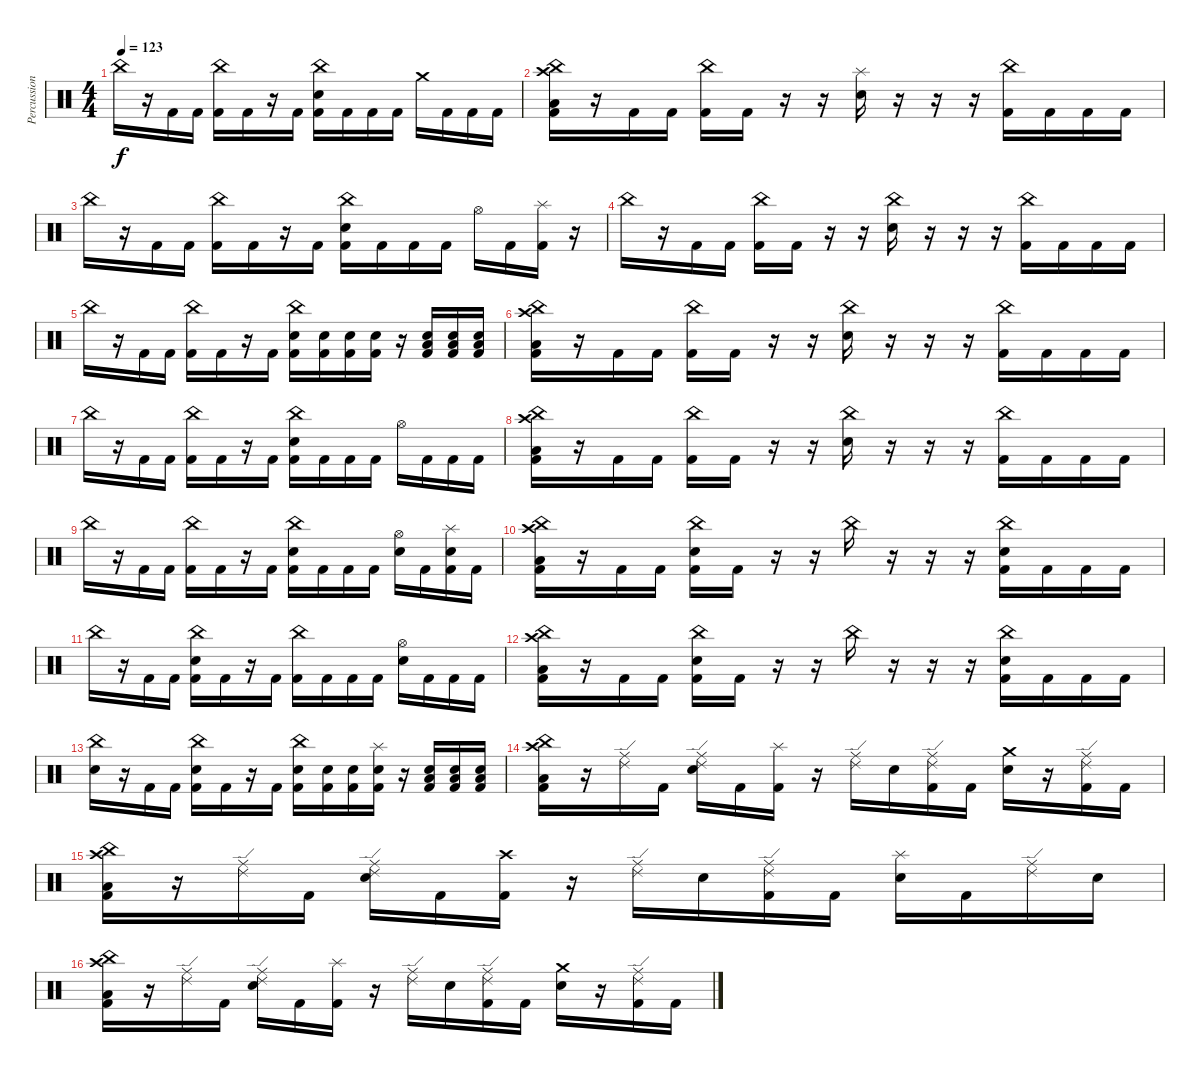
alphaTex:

\track ("Percussion" "Percussion") {instrument percussion}
\staff {score}
\articulation defaults
\ts (4 4)
\tempo 123
\clef neutral
\ks c "China (hit)".16{dy f}
r.16 "Kick (hit) 2".16 "Kick (hit) 2".16 ("China (hit)" "Kick (hit) 2").16 "Kick (hit) 2".16 r.16 "Kick (hit) 2".16 ("China (hit)" "Electric Snare (hit)" "Kick (hit) 2").16 "Kick (hit) 2".16 "Kick (hit) 2".16 "Kick (hit) 2".16 "Crash medium (hit)".16 "Kick (hit) 2".16 "Kick (hit) 2".16 "Kick (hit) 2".16 |
("Crash high (hit)" "China (hit)" "Low Floor Tom (hit)" "Kick (hit) 2").16 r.16 "Kick (hit) 2".16 "Kick (hit) 2".16 ("China (hit)" "Kick (hit) 2").16 "Kick (hit) 2".16 r.16 r.16 ("Splash (hit)" "Electric Snare (hit)").16 r.16 r.16 r.16 ("China (hit)" "Kick (hit) 2").16 "Kick (hit) 2".16 "Kick (hit) 2".16 "Kick (hit) 2".16 |
"China (hit)".16 r.16 "Kick (hit) 2".16 "Kick (hit) 2".16 ("China (hit)" "Kick (hit) 2").16 "Kick (hit) 2".16 r.16 "Kick (hit) 2".16 ("China (hit)" "Electric Snare (hit)" "Kick (hit) 2").16 "Kick (hit) 2".16 "Kick (hit) 2".16 "Kick (hit) 2".16 "Hi-Hat (open)".16 "Kick (hit) 2".16 ("Splash (hit)" "Kick (hit) 2").16 r.16 |
"China (hit)".16 r.16 "Kick (hit) 2".16 "Kick (hit) 2".16 ("China (hit)" "Kick (hit) 2").16 "Kick (hit) 2".16 r.16 r.16 ("China (hit)" "Electric Snare (hit)").16 r.16 r.16 r.16 ("China (hit)" "Kick (hit) 2").16 "Kick (hit) 2".16 "Kick (hit) 2".16 "Kick (hit) 2".16 |
"China (hit)".16 r.16 "Kick (hit) 2".16 "Kick (hit) 2".16 ("China (hit)" "Kick (hit) 2").16 "Kick (hit) 2".16 r.16 "Kick (hit) 2".16 ("China (hit)" "Electric Snare (hit)" "Kick (hit) 2").16 ("Electric Snare (hit)" "Kick (hit) 2").16 ("Electric Snare (hit)" "Kick (hit) 2").16 ("Electric Snare (hit)" "Kick (hit) 2").16 r.16 ("Electric Snare (hit)" "Low Floor Tom (hit)" "Kick (hit) 2").16 ("Electric Snare (hit)" "Low Floor Tom (hit)" "Kick (hit) 2").16 ("Electric Snare (hit)" "Low Floor Tom (hit)" "Kick (hit) 2").16 |
("Crash high (hit)" "China (hit)" "Low Floor Tom (hit)" "Kick (hit) 2").16 r.16 "Kick (hit) 2".16 "Kick (hit) 2".16 ("China (hit)" "Kick (hit) 2").16 "Kick (hit) 2".16 r.16 r.16 ("China (hit)" "Electric Snare (hit)").16 r.16 r.16 r.16 ("China (hit)" "Kick (hit) 2").16 "Kick (hit) 2".16 "Kick (hit) 2".16 "Kick (hit) 2".16 |
"China (hit)".16 r.16 "Kick (hit) 2".16 "Kick (hit) 2".16 ("China (hit)" "Kick (hit) 2").16 "Kick (hit) 2".16 r.16 "Kick (hit) 2".16 ("China (hit)" "Electric Snare (hit)" "Kick (hit) 2").16 "Kick (hit) 2".16 "Kick (hit) 2".16 "Kick (hit) 2".16 "Hi-Hat (open)".16 "Kick (hit) 2".16 "Kick (hit) 2".16 "Kick (hit) 2".16 |
("Crash high (hit)" "China (hit)" "Low Floor Tom (hit)" "Kick (hit) 2").16 r.16 "Kick (hit) 2".16 "Kick (hit) 2".16 ("China (hit)" "Kick (hit) 2").16 "Kick (hit) 2".16 r.16 r.16 ("China (hit)" "Electric Snare (hit)").16 r.16 r.16 r.16 ("China (hit)" "Kick (hit) 2").16 "Kick (hit) 2".16 "Kick (hit) 2".16 "Kick (hit) 2".16 |
"China (hit)".16 r.16 "Kick (hit) 2".16 "Kick (hit) 2".16 ("China (hit)" "Kick (hit) 2").16 "Kick (hit) 2".16 r.16 "Kick (hit) 2".16 ("China (hit)" "Electric Snare (hit)" "Kick (hit) 2").16 "Kick (hit) 2".16 "Kick (hit) 2".16 "Kick (hit) 2".16 ("Hi-Hat (open)" "Electric Snare (hit)").16 "Kick (hit) 2".16 ("Splash (hit)" "Electric Snare (hit)" "Kick (hit) 2").16 "Kick (hit) 2".16 |
("Crash high (hit)" "China (hit)" "Low Floor Tom (hit)" "Kick (hit) 2").16 r.16 "Kick (hit) 2".16 "Kick (hit) 2".16 ("China (hit)" "Electric Snare (hit)" "Kick (hit) 2").16 "Kick (hit) 2".16 r.16 r.16 "China (hit)".16 r.16 r.16 r.16 ("China (hit)" "Electric Snare (hit)" "Kick (hit) 2").16 "Kick (hit) 2".16 "Kick (hit) 2".16 "Kick (hit) 2".16 |
"China (hit)".16 r.16 "Kick (hit) 2".16 "Kick (hit) 2".16 ("China (hit)" "Electric Snare (hit)" "Kick (hit) 2").16 "Kick (hit) 2".16 r.16 "Kick (hit) 2".16 ("China (hit)" "Kick (hit) 2").16 "Kick (hit) 2".16 "Kick (hit) 2".16 "Kick (hit) 2".16 ("Hi-Hat (open)" "Electric Snare (hit)").16 "Kick (hit) 2".16 "Kick (hit) 2".16 "Kick (hit) 2".16 |
("Crash high (hit)" "China (hit)" "Low Floor Tom (hit)" "Kick (hit) 2").16 r.16 "Kick (hit) 2".16 "Kick (hit) 2".16 ("China (hit)" "Electric Snare (hit)" "Kick (hit) 2").16 "Kick (hit) 2".16 r.16 r.16 "China (hit)".16 r.16 r.16 r.16 ("China (hit)" "Electric Snare (hit)" "Kick (hit) 2").16 "Kick (hit) 2".16 "Kick (hit) 2".16 "Kick (hit) 2".16 |
("China (hit)" "Electric Snare (hit)").16 r.16 "Kick (hit) 2".16 "Kick (hit) 2".16 ("China (hit)" "Electric Snare (hit)" "Kick (hit) 2").16 "Kick (hit) 2".16 r.16 "Kick (hit) 2".16 ("China (hit)" "Electric Snare (hit)" "Kick (hit) 2").16 ("Electric Snare (hit)" "Kick (hit) 2").16 ("Electric Snare (hit)" "Kick (hit) 2").16 ("Splash (hit)" "Electric Snare (hit)" "Kick (hit) 2").16 r.16 ("Electric Snare (hit)" "Low Floor Tom (hit)" "Kick (hit) 2").16 ("Electric Snare (hit)" "Low Floor Tom (hit)" "Kick (hit) 2").16 ("Electric Snare (hit)" "Low Floor Tom (hit)" "Kick (hit) 2").16 |
("China (hit)" "Crash high (hit)" "Low Floor Tom (hit)" "Kick (hit) 2").16 r.16 ("Ride (middle)" "Ride (edge) 2").16 "Kick (hit) 2".16 ("Ride (middle)" "Ride (edge) 2" "Electric Snare (hit)").16 "Kick (hit) 2".16 ("Splash (hit)" "Kick (hit) 2").16 r.16 ("Ride (middle)" "Ride (edge) 2").16 "Electric Snare (hit)".16 ("Ride (middle)" "Ride (edge) 2" "Kick (hit) 2").16 "Kick (hit) 2".16 ("Crash medium (hit)" "Electric Snare (hit)").16 r.16 ("Ride (middle)" "Ride (edge) 2" "Kick (hit) 2").16 "Kick (hit) 2".16 |
("China (hit)" "Crash high (hit)" "Low Floor Tom (hit)" "Kick (hit) 2").16 r.16 ("Ride (middle)" "Ride (edge) 2").16 "Kick (hit) 2".16 ("Ride (middle)" "Ride (edge) 2" "Electric Snare (hit)").16 "Kick (hit) 2".16 ("Crash high (hit)" "Kick (hit) 2").16 r.16 ("Ride (middle)" "Ride (edge) 2").16 "Electric Snare (hit)".16 ("Ride (middle)" "Ride (edge) 2" "Kick (hit) 2").16 "Kick (hit) 2".16 ("Splash (hit)" "Electric Snare (hit)").16 "Kick (hit) 2".16 ("Ride (middle)" "Ride (edge) 2").16 "Electric Snare (hit)".16 |
("China (hit)" "Crash high (hit)" "Low Floor Tom (hit)" "Kick (hit) 2").16 r.16 ("Ride (middle)" "Ride (edge) 2").16 "Kick (hit) 2".16 ("Ride (middle)" "Ride (edge) 2" "Electric Snare (hit)").16 "Kick (hit) 2".16 ("Splash (hit)" "Kick (hit) 2").16 r.16 ("Ride (middle)" "Ride (edge) 2").16 "Electric Snare (hit)".16 ("Ride (middle)" "Ride (edge) 2" "Kick (hit) 2").16 "Kick (hit) 2".16 ("Crash medium (hit)" "Electric Snare (hit)").16 r.16 ("Ride (middle)" "Ride (edge) 2" "Kick (hit) 2").16 "Kick (hit) 2".16
